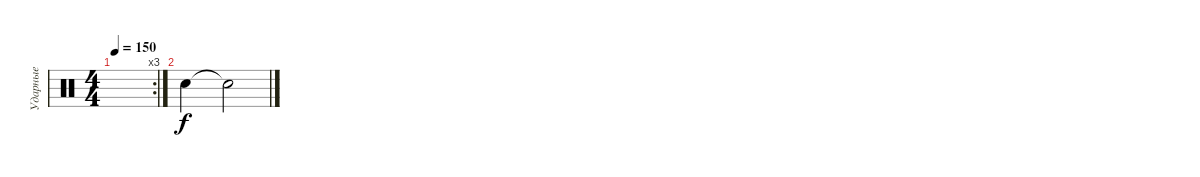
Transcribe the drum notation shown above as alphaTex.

\track ("Ударные" "Ударные") {instrument percussion}
\staff {score}
\articulation defaults
\rc 3
\ts (4 4)
\tempo 150
\clef neutral
\ks c
|
"Metronome (bell)".2 "Snare (hit)"{t}.2
